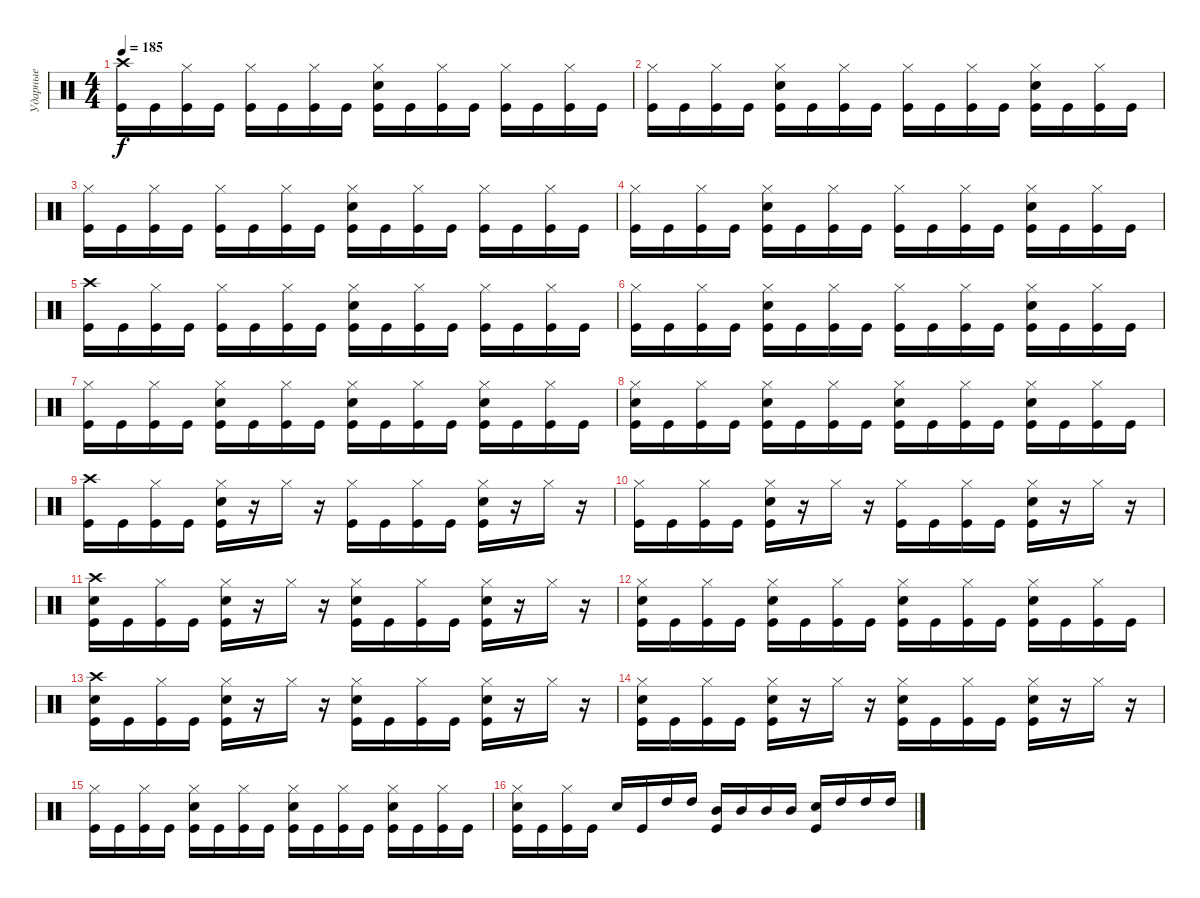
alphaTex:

\track ("Ударные" "Ударные") {instrument percussion}
\staff {score}
\articulation defaults
\ts (4 4)
\tempo 185
\clef neutral
\ks c
("Crash high (hit)" "Kick (hit)").16{dy f} "Kick (hit)".16 ("Hi-Hat (closed)" "Kick (hit)").16 "Kick (hit)".16 ("Hi-Hat (closed)" "Kick (hit)").16 "Kick (hit)".16 ("Hi-Hat (closed)" "Kick (hit)").16 "Kick (hit)".16 ("Hi-Hat (closed)" "Electric Snare (hit)" "Kick (hit)").16 "Kick (hit)".16 ("Hi-Hat (closed)" "Kick (hit)").16 "Kick (hit)".16 ("Hi-Hat (closed)" "Kick (hit)").16 "Kick (hit)".16 ("Hi-Hat (closed)" "Kick (hit)").16 "Kick (hit)".16 |
("Hi-Hat (closed)" "Kick (hit)").16 "Kick (hit)".16 ("Hi-Hat (closed)" "Kick (hit)").16 "Kick (hit)".16 ("Hi-Hat (closed)" "Electric Snare (hit)" "Kick (hit)").16 "Kick (hit)".16 ("Hi-Hat (closed)" "Kick (hit)").16 "Kick (hit)".16 ("Hi-Hat (closed)" "Kick (hit)").16 "Kick (hit)".16 ("Hi-Hat (closed)" "Kick (hit)").16 "Kick (hit)".16 ("Hi-Hat (closed)" "Electric Snare (hit)" "Kick (hit)").16 "Kick (hit)".16 ("Hi-Hat (closed)" "Kick (hit)").16 "Kick (hit)".16 |
("Hi-Hat (closed)" "Kick (hit)").16 "Kick (hit)".16 ("Hi-Hat (closed)" "Kick (hit)").16 "Kick (hit)".16 ("Hi-Hat (closed)" "Kick (hit)").16 "Kick (hit)".16 ("Hi-Hat (closed)" "Kick (hit)").16 "Kick (hit)".16 ("Hi-Hat (closed)" "Electric Snare (hit)" "Kick (hit)").16 "Kick (hit)".16 ("Hi-Hat (closed)" "Kick (hit)").16 "Kick (hit)".16 ("Hi-Hat (closed)" "Kick (hit)").16 "Kick (hit)".16 ("Hi-Hat (closed)" "Kick (hit)").16 "Kick (hit)".16 |
("Hi-Hat (closed)" "Kick (hit)").16 "Kick (hit)".16 ("Hi-Hat (closed)" "Kick (hit)").16 "Kick (hit)".16 ("Hi-Hat (closed)" "Electric Snare (hit)" "Kick (hit)").16 "Kick (hit)".16 ("Hi-Hat (closed)" "Kick (hit)").16 "Kick (hit)".16 ("Hi-Hat (closed)" "Kick (hit)").16 "Kick (hit)".16 ("Hi-Hat (closed)" "Kick (hit)").16 "Kick (hit)".16 ("Hi-Hat (closed)" "Electric Snare (hit)" "Kick (hit)").16 "Kick (hit)".16 ("Hi-Hat (closed)" "Kick (hit)").16 "Kick (hit)".16 |
("Crash high (hit)" "Kick (hit)").16 "Kick (hit)".16 ("Hi-Hat (closed)" "Kick (hit)").16 "Kick (hit)".16 ("Hi-Hat (closed)" "Kick (hit)").16 "Kick (hit)".16 ("Hi-Hat (closed)" "Kick (hit)").16 "Kick (hit)".16 ("Hi-Hat (closed)" "Electric Snare (hit)" "Kick (hit)").16 "Kick (hit)".16 ("Hi-Hat (closed)" "Kick (hit)").16 "Kick (hit)".16 ("Hi-Hat (closed)" "Kick (hit)").16 "Kick (hit)".16 ("Hi-Hat (closed)" "Kick (hit)").16 "Kick (hit)".16 |
("Hi-Hat (closed)" "Kick (hit)").16 "Kick (hit)".16 ("Hi-Hat (closed)" "Kick (hit)").16 "Kick (hit)".16 ("Hi-Hat (closed)" "Electric Snare (hit)" "Kick (hit)").16 "Kick (hit)".16 ("Hi-Hat (closed)" "Kick (hit)").16 "Kick (hit)".16 ("Hi-Hat (closed)" "Kick (hit)").16 "Kick (hit)".16 ("Hi-Hat (closed)" "Kick (hit)").16 "Kick (hit)".16 ("Hi-Hat (closed)" "Electric Snare (hit)" "Kick (hit)").16 "Kick (hit)".16 ("Hi-Hat (closed)" "Kick (hit)").16 "Kick (hit)".16 |
("Hi-Hat (closed)" "Kick (hit)").16 "Kick (hit)".16 ("Hi-Hat (closed)" "Kick (hit)").16 "Kick (hit)".16 ("Hi-Hat (closed)" "Electric Snare (hit)" "Kick (hit)").16 "Kick (hit)".16 ("Hi-Hat (closed)" "Kick (hit)").16 "Kick (hit)".16 ("Hi-Hat (closed)" "Electric Snare (hit)" "Kick (hit)").16 "Kick (hit)".16 ("Hi-Hat (closed)" "Kick (hit)").16 "Kick (hit)".16 ("Hi-Hat (closed)" "Electric Snare (hit)" "Kick (hit)").16 "Kick (hit)".16 ("Hi-Hat (closed)" "Kick (hit)").16 "Kick (hit)".16 |
("Hi-Hat (closed)" "Electric Snare (hit)" "Kick (hit)").16 "Kick (hit)".16 ("Hi-Hat (closed)" "Kick (hit)").16 "Kick (hit)".16 ("Hi-Hat (closed)" "Electric Snare (hit)" "Kick (hit)").16 "Kick (hit)".16 ("Hi-Hat (closed)" "Kick (hit)").16 "Kick (hit)".16 ("Hi-Hat (closed)" "Electric Snare (hit)" "Kick (hit)").16 "Kick (hit)".16 ("Hi-Hat (closed)" "Kick (hit)").16 "Kick (hit)".16 ("Hi-Hat (closed)" "Electric Snare (hit)" "Kick (hit)").16 "Kick (hit)".16 ("Hi-Hat (closed)" "Kick (hit)").16 "Kick (hit)".16 |
("Crash high (hit)" "Kick (hit)").16 "Kick (hit)".16 ("Hi-Hat (closed)" "Kick (hit)").16 "Kick (hit)".16 ("Hi-Hat (closed)" "Electric Snare (hit)" "Kick (hit)").16 r.16 "Hi-Hat (closed)".16 r.16 ("Hi-Hat (closed)" "Kick (hit)").16 "Kick (hit)".16 ("Hi-Hat (closed)" "Kick (hit)").16 "Kick (hit)".16 ("Hi-Hat (closed)" "Electric Snare (hit)" "Kick (hit)").16 r.16 "Hi-Hat (closed)".16 r.16 |
("Hi-Hat (closed)" "Kick (hit)").16 "Kick (hit)".16 ("Hi-Hat (closed)" "Kick (hit)").16 "Kick (hit)".16 ("Hi-Hat (closed)" "Electric Snare (hit)" "Kick (hit)").16 r.16 "Hi-Hat (closed)".16 r.16 ("Hi-Hat (closed)" "Kick (hit)").16 "Kick (hit)".16 ("Hi-Hat (closed)" "Kick (hit)").16 "Kick (hit)".16 ("Hi-Hat (closed)" "Electric Snare (hit)" "Kick (hit)").16 r.16 "Hi-Hat (closed)".16 r.16 |
("Crash high (hit)" "Electric Snare (hit)" "Kick (hit)").16 "Kick (hit)".16 ("Hi-Hat (closed)" "Kick (hit)").16 "Kick (hit)".16 ("Hi-Hat (closed)" "Electric Snare (hit)" "Kick (hit)").16 r.16 "Hi-Hat (closed)".16 r.16 ("Hi-Hat (closed)" "Electric Snare (hit)" "Kick (hit)").16 "Kick (hit)".16 ("Hi-Hat (closed)" "Kick (hit)").16 "Kick (hit)".16 ("Hi-Hat (closed)" "Electric Snare (hit)" "Kick (hit)").16 r.16 "Hi-Hat (closed)".16 r.16 |
("Hi-Hat (closed)" "Electric Snare (hit)" "Kick (hit)").16 "Kick (hit)".16 ("Hi-Hat (closed)" "Kick (hit)").16 "Kick (hit)".16 ("Hi-Hat (closed)" "Electric Snare (hit)" "Kick (hit)").16 "Kick (hit)".16 ("Hi-Hat (closed)" "Kick (hit)").16 "Kick (hit)".16 ("Hi-Hat (closed)" "Electric Snare (hit)" "Kick (hit)").16 "Kick (hit)".16 ("Hi-Hat (closed)" "Kick (hit)").16 "Kick (hit)".16 ("Hi-Hat (closed)" "Electric Snare (hit)" "Kick (hit)").16 "Kick (hit)".16 ("Hi-Hat (closed)" "Kick (hit)").16 "Kick (hit)".16 |
("Crash high (hit)" "Electric Snare (hit)" "Kick (hit)").16 "Kick (hit)".16 ("Hi-Hat (closed)" "Kick (hit)").16 "Kick (hit)".16 ("Hi-Hat (closed)" "Electric Snare (hit)" "Kick (hit)").16 r.16 "Hi-Hat (closed)".16 r.16 ("Hi-Hat (closed)" "Electric Snare (hit)" "Kick (hit)").16 "Kick (hit)".16 ("Hi-Hat (closed)" "Kick (hit)").16 "Kick (hit)".16 ("Hi-Hat (closed)" "Electric Snare (hit)" "Kick (hit)").16 r.16 "Hi-Hat (closed)".16 r.16 |
("Hi-Hat (closed)" "Electric Snare (hit)" "Kick (hit)").16 "Kick (hit)".16 ("Hi-Hat (closed)" "Kick (hit)").16 "Kick (hit)".16 ("Hi-Hat (closed)" "Electric Snare (hit)" "Kick (hit)").16 r.16 "Hi-Hat (closed)".16 r.16 ("Hi-Hat (closed)" "Electric Snare (hit)" "Kick (hit)").16 "Kick (hit)".16 ("Hi-Hat (closed)" "Kick (hit)").16 "Kick (hit)".16 ("Hi-Hat (closed)" "Electric Snare (hit)" "Kick (hit)").16 r.16 "Hi-Hat (closed)".16 r.16 |
("Hi-Hat (closed)" "Kick (hit)").16 "Kick (hit)".16 ("Hi-Hat (closed)" "Kick (hit)").16 "Kick (hit)".16 ("Hi-Hat (closed)" "Electric Snare (hit)" "Kick (hit)").16 "Kick (hit)".16 ("Hi-Hat (closed)" "Kick (hit)").16 "Kick (hit)".16 ("Hi-Hat (closed)" "Electric Snare (hit)" "Kick (hit)").16 "Kick (hit)".16 ("Hi-Hat (closed)" "Kick (hit)").16 "Kick (hit)".16 ("Hi-Hat (closed)" "Electric Snare (hit)" "Kick (hit)").16 "Kick (hit)".16 ("Hi-Hat (closed)" "Kick (hit)").16 "Kick (hit)".16 |
("Hi-Hat (closed)" "Electric Snare (hit)" "Kick (hit)").16 "Kick (hit)".16 ("Hi-Hat (closed)" "Kick (hit)").16 "Kick (hit)".16 "Electric Snare (hit)".16 "Kick (hit)".16 "High Tom (hit)".16 "High Tom (hit)".16 ("Mid Tom (hit)" "Kick (hit)").16 "Mid Tom (hit)".16 "Mid Tom (hit)".16 "Mid Tom (hit)".16 ("Electric Snare (hit)" "Kick (hit)").16 "High Tom (hit)".16 "High Tom (hit)".16 "High Tom (hit)".16
